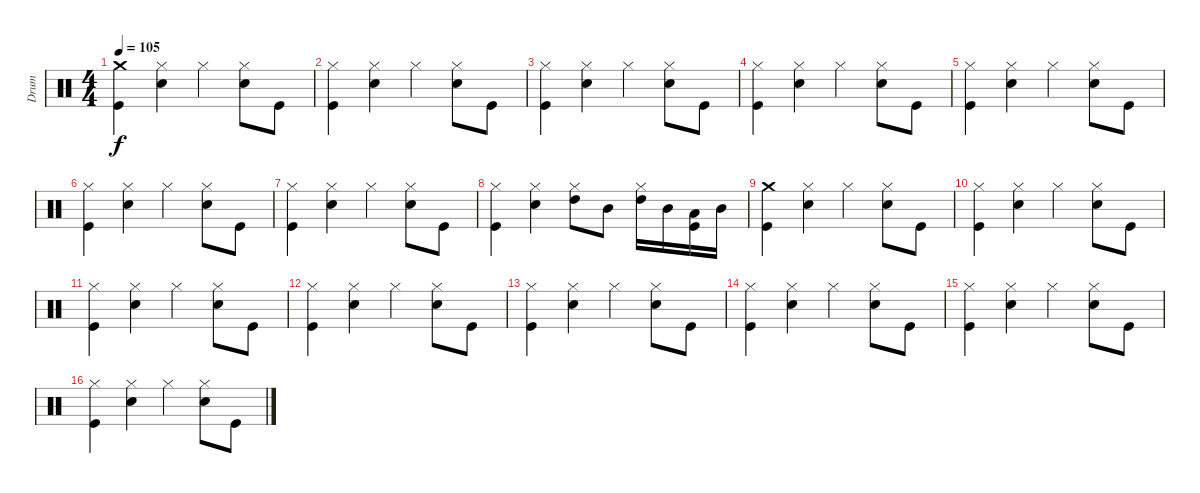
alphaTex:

\track ("Drum" "Drum") {instrument percussion}
\staff {score}
\articulation defaults
\ts (4 4)
\tempo 105
\clef neutral
\ks c
("Crash medium (hit)" "Kick (hit)").4{dy f} ("Hi-Hat (closed)" "Snare (hit) 2").4 "Hi-Hat (closed)".4 ("Hi-Hat (closed)" "Snare (hit) 2").8 "Kick (hit)".8 |
("Hi-Hat (closed)" "Kick (hit)").4 ("Hi-Hat (closed)" "Snare (hit) 2").4 "Hi-Hat (closed)".4 ("Hi-Hat (closed)" "Snare (hit) 2").8 "Kick (hit)".8 |
("Hi-Hat (closed)" "Kick (hit)").4 ("Hi-Hat (closed)" "Snare (hit) 2").4 "Hi-Hat (closed)".4 ("Hi-Hat (closed)" "Snare (hit) 2").8 "Kick (hit)".8 |
("Hi-Hat (closed)" "Kick (hit)").4 ("Hi-Hat (closed)" "Snare (hit) 2").4 "Hi-Hat (closed)".4 ("Hi-Hat (closed)" "Snare (hit) 2").8 "Kick (hit)".8 |
("Hi-Hat (closed)" "Kick (hit)").4 ("Hi-Hat (closed)" "Snare (hit) 2").4 "Hi-Hat (closed)".4 ("Hi-Hat (closed)" "Snare (hit) 2").8 "Kick (hit)".8 |
("Hi-Hat (closed)" "Kick (hit)").4 ("Hi-Hat (closed)" "Snare (hit) 2").4 "Hi-Hat (closed)".4 ("Hi-Hat (closed)" "Snare (hit) 2").8 "Kick (hit)".8 |
("Hi-Hat (closed)" "Kick (hit)").4 ("Hi-Hat (closed)" "Snare (hit) 2").4 "Hi-Hat (closed)".4 ("Hi-Hat (closed)" "Snare (hit) 2").8 "Kick (hit)".8 |
("Hi-Hat (closed)" "Kick (hit)").4 ("Hi-Hat (closed)" "Snare (hit) 2").4 ("Hi-Hat (closed)" "High Tom (hit)").8 "Mid Tom (hit)".8 ("Hi-Hat (closed)" "High Tom (hit)").16 "Mid Tom (hit)".16 ("Low Tom (hit)" "Kick (hit)").16 "Mid Tom (hit)".16 |
("Crash medium (hit)" "Kick (hit)").4 ("Hi-Hat (closed)" "Snare (hit) 2").4 "Hi-Hat (closed)".4 ("Hi-Hat (closed)" "Snare (hit) 2").8 "Kick (hit)".8 |
("Hi-Hat (closed)" "Kick (hit)").4 ("Hi-Hat (closed)" "Snare (hit) 2").4 "Hi-Hat (closed)".4 ("Hi-Hat (closed)" "Snare (hit) 2").8 "Kick (hit)".8 |
("Hi-Hat (closed)" "Kick (hit)").4 ("Hi-Hat (closed)" "Snare (hit) 2").4 "Hi-Hat (closed)".4 ("Hi-Hat (closed)" "Snare (hit) 2").8 "Kick (hit)".8 |
("Hi-Hat (closed)" "Kick (hit)").4 ("Hi-Hat (closed)" "Snare (hit) 2").4 "Hi-Hat (closed)".4 ("Hi-Hat (closed)" "Snare (hit) 2").8 "Kick (hit)".8 |
("Hi-Hat (closed)" "Kick (hit)").4 ("Hi-Hat (closed)" "Snare (hit) 2").4 "Hi-Hat (closed)".4 ("Hi-Hat (closed)" "Snare (hit) 2").8 "Kick (hit)".8 |
("Hi-Hat (closed)" "Kick (hit)").4 ("Hi-Hat (closed)" "Snare (hit) 2").4 "Hi-Hat (closed)".4 ("Hi-Hat (closed)" "Snare (hit) 2").8 "Kick (hit)".8 |
("Hi-Hat (closed)" "Kick (hit)").4 ("Hi-Hat (closed)" "Snare (hit) 2").4 "Hi-Hat (closed)".4 ("Hi-Hat (closed)" "Snare (hit) 2").8 "Kick (hit)".8 |
("Hi-Hat (closed)" "Kick (hit)").4 ("Hi-Hat (closed)" "Snare (hit) 2").4 "Hi-Hat (closed)".4 ("Hi-Hat (closed)" "Snare (hit) 2").8 "Kick (hit)".8
